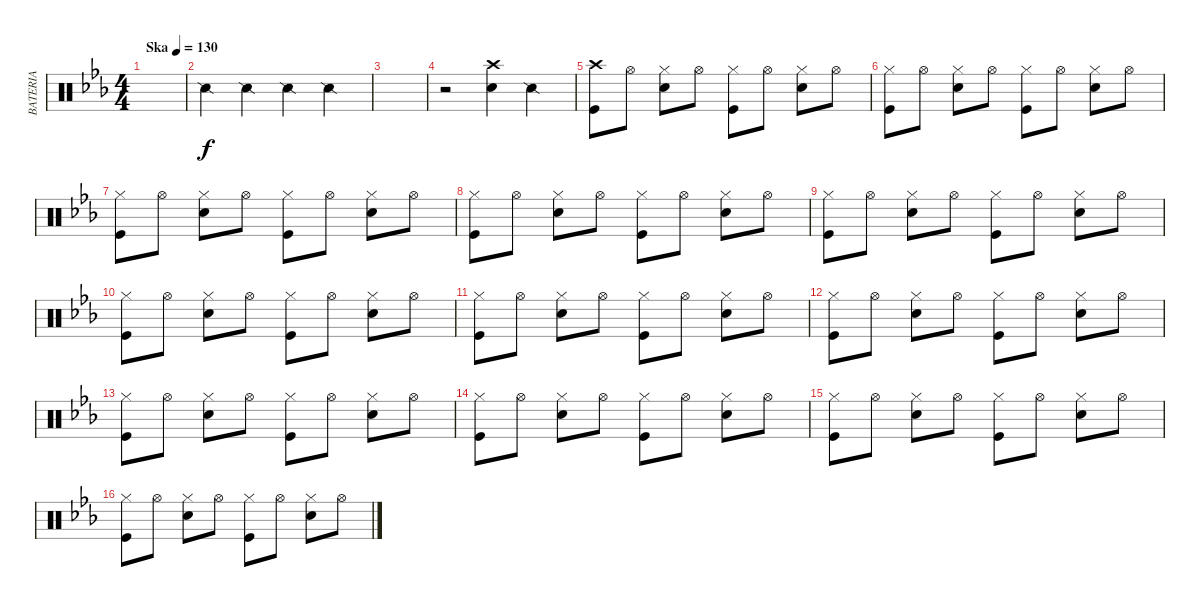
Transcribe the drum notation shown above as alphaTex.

\track ("BATERIA" "BATERIA") {instrument percussion}
\staff {score}
\articulation defaults
\ts (4 4)
\tempo (130 "Ska")
\clef neutral
\ks cminor
|
"Snare (side stick) 2".4 "Snare (side stick) 2".4 "Snare (side stick) 2".4 "Snare (side stick) 2".4 |
|
r.2 ("Crash high (hit)" "Snare (hit) 2").4 "Snare (side stick) 2".4 |
("Kick (hit)" "Crash high (hit)").8 "Hi-Hat (open)".8 ("Hi-Hat (closed)" "Snare (hit) 2").8 "Hi-Hat (open)".8 ("Kick (hit)" "Hi-Hat (closed)").8 "Hi-Hat (open)".8 ("Hi-Hat (closed)" "Snare (hit) 2").8 "Hi-Hat (open)".8 |
("Kick (hit)" "Hi-Hat (closed)").8 "Hi-Hat (open)".8 ("Hi-Hat (closed)" "Snare (hit) 2").8 "Hi-Hat (open)".8 ("Kick (hit)" "Hi-Hat (closed)").8 "Hi-Hat (open)".8 ("Hi-Hat (closed)" "Snare (hit) 2").8 "Hi-Hat (open)".8 |
("Kick (hit)" "Hi-Hat (closed)").8 "Hi-Hat (open)".8 ("Hi-Hat (closed)" "Snare (hit) 2").8 "Hi-Hat (open)".8 ("Kick (hit)" "Hi-Hat (closed)").8 "Hi-Hat (open)".8 ("Hi-Hat (closed)" "Snare (hit) 2").8 "Hi-Hat (open)".8 |
("Kick (hit)" "Hi-Hat (closed)").8 "Hi-Hat (open)".8 ("Hi-Hat (closed)" "Snare (hit) 2").8 "Hi-Hat (open)".8 ("Kick (hit)" "Hi-Hat (closed)").8 "Hi-Hat (open)".8 ("Hi-Hat (closed)" "Snare (hit) 2").8 "Hi-Hat (open)".8 |
("Kick (hit)" "Hi-Hat (closed)").8 "Hi-Hat (open)".8 ("Hi-Hat (closed)" "Snare (hit) 2").8 "Hi-Hat (open)".8 ("Kick (hit)" "Hi-Hat (closed)").8 "Hi-Hat (open)".8 ("Hi-Hat (closed)" "Snare (hit) 2").8 "Hi-Hat (open)".8 |
("Kick (hit)" "Hi-Hat (closed)").8 "Hi-Hat (open)".8 ("Hi-Hat (closed)" "Snare (hit) 2").8 "Hi-Hat (open)".8 ("Kick (hit)" "Hi-Hat (closed)").8 "Hi-Hat (open)".8 ("Hi-Hat (closed)" "Snare (hit) 2").8 "Hi-Hat (open)".8 |
("Kick (hit)" "Hi-Hat (closed)").8 "Hi-Hat (open)".8 ("Hi-Hat (closed)" "Snare (hit) 2").8 "Hi-Hat (open)".8 ("Kick (hit)" "Hi-Hat (closed)").8 "Hi-Hat (open)".8 ("Hi-Hat (closed)" "Snare (hit) 2").8 "Hi-Hat (open)".8 |
("Kick (hit)" "Hi-Hat (closed)").8 "Hi-Hat (open)".8 ("Hi-Hat (closed)" "Snare (hit) 2").8 "Hi-Hat (open)".8 ("Kick (hit)" "Hi-Hat (closed)").8 "Hi-Hat (open)".8 ("Hi-Hat (closed)" "Snare (hit) 2").8 "Hi-Hat (open)".8 |
("Kick (hit)" "Hi-Hat (closed)").8 "Hi-Hat (open)".8 ("Hi-Hat (closed)" "Snare (hit) 2").8 "Hi-Hat (open)".8 ("Kick (hit)" "Hi-Hat (closed)").8 "Hi-Hat (open)".8 ("Hi-Hat (closed)" "Snare (hit) 2").8 "Hi-Hat (open)".8 |
("Kick (hit)" "Hi-Hat (closed)").8 "Hi-Hat (open)".8 ("Hi-Hat (closed)" "Snare (hit) 2").8 "Hi-Hat (open)".8 ("Kick (hit)" "Hi-Hat (closed)").8 "Hi-Hat (open)".8 ("Hi-Hat (closed)" "Snare (hit) 2").8 "Hi-Hat (open)".8 |
("Kick (hit)" "Hi-Hat (closed)").8 "Hi-Hat (open)".8 ("Hi-Hat (closed)" "Snare (hit) 2").8 "Hi-Hat (open)".8 ("Kick (hit)" "Hi-Hat (closed)").8 "Hi-Hat (open)".8 ("Hi-Hat (closed)" "Snare (hit) 2").8 "Hi-Hat (open)".8 |
("Kick (hit)" "Hi-Hat (closed)").8 "Hi-Hat (open)".8 ("Hi-Hat (closed)" "Snare (hit) 2").8 "Hi-Hat (open)".8 ("Kick (hit)" "Hi-Hat (closed)").8 "Hi-Hat (open)".8 ("Hi-Hat (closed)" "Snare (hit) 2").8 "Hi-Hat (open)".8
